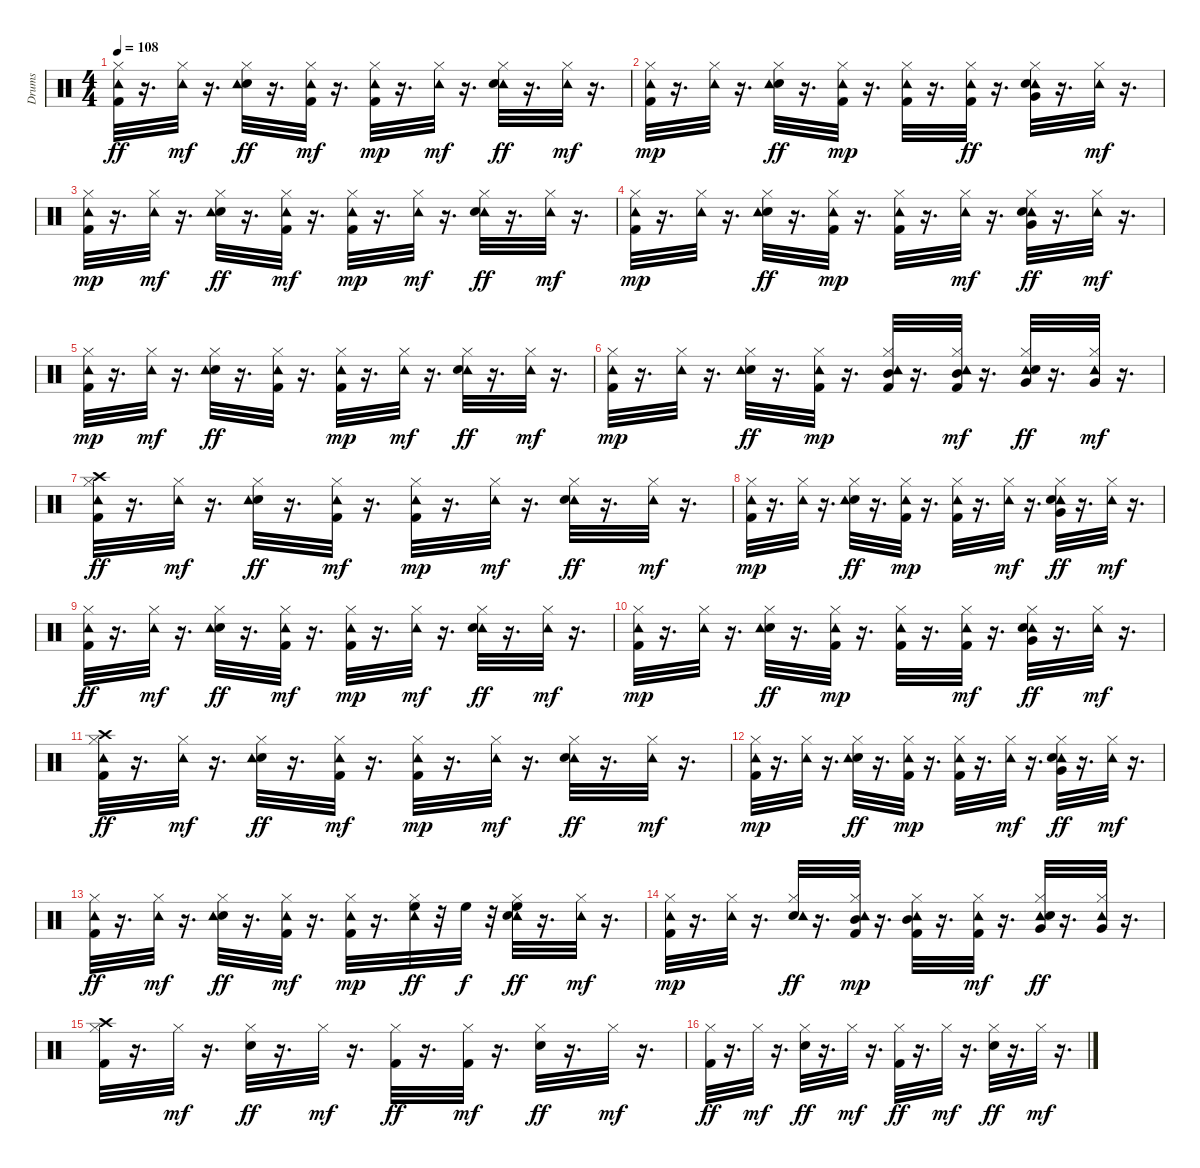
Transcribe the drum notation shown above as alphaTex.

\track ("Drums               " "Drums     ") {instrument percussion}
\staff {score}
\articulation defaults
\ts (4 4)
\tempo 108
\clef neutral
\ks c
("Kick (hit) 2" "Tambourine (hit)" "Hi-Hat (closed)").32{dy ff} r.16{d} ("Tambourine (hit)" "Hi-Hat (closed)").32{dy mf} r.16{d} ("Hi-Hat (closed)" "Snare (hit) 2" "Tambourine (hit)").32{dy ff} r.16{d} ("Tambourine (hit)" "Kick (hit) 2" "Hi-Hat (closed)").32{dy mf} r.16{d} ("Kick (hit) 2" "Hi-Hat (closed)" "Tambourine (hit)").32{dy mp} r.16{d} ("Tambourine (hit)" "Hi-Hat (closed)").32{dy mf} r.16{d} ("Tambourine (hit)" "Snare (hit) 2" "Hi-Hat (closed)").32{dy ff} r.16{d} ("Tambourine (hit)" "Hi-Hat (closed)").32{dy mf} r.16{d} |
("Kick (hit) 2" "Hi-Hat (closed)" "Tambourine (hit)").32{dy mp} r.16{d} ("Hi-Hat (closed)" "Tambourine (hit)").32 r.16{d} ("Snare (hit) 2" "Hi-Hat (closed)" "Tambourine (hit)").32{dy ff} r.16{d} ("Kick (hit) 2" "Hi-Hat (closed)" "Tambourine (hit)").32{dy mp} r.16{d} ("Kick (hit) 2" "Hi-Hat (closed)" "Tambourine (hit)").32 r.16{d} ("Tambourine (hit)" "Hi-Hat (closed)" "Kick (hit) 2").32{dy ff} r.16{d} ("Tambourine (hit)" "Snare (hit) 2" "Very Low Tom (hit)" "Hi-Hat (closed)").32 r.16{d} ("Tambourine (hit)" "Hi-Hat (closed)").32{dy mf} r.16{d} |
("Kick (hit) 2" "Hi-Hat (closed)" "Tambourine (hit)").32{dy mp} r.16{d} ("Tambourine (hit)" "Hi-Hat (closed)").32{dy mf} r.16{d} ("Snare (hit) 2" "Hi-Hat (closed)" "Tambourine (hit)").32{dy ff} r.16{d} ("Tambourine (hit)" "Kick (hit) 2" "Hi-Hat (closed)").32{dy mf} r.16{d} ("Kick (hit) 2" "Hi-Hat (closed)" "Tambourine (hit)").32{dy mp} r.16{d} ("Tambourine (hit)" "Hi-Hat (closed)").32{dy mf} r.16{d} ("Tambourine (hit)" "Snare (hit) 2" "Hi-Hat (closed)").32{dy ff} r.16{d} ("Tambourine (hit)" "Hi-Hat (closed)").32{dy mf} r.16{d} |
("Hi-Hat (closed)" "Kick (hit) 2" "Tambourine (hit)").32{dy mp} r.16{d} ("Hi-Hat (closed)" "Tambourine (hit)").32 r.16{d} ("Snare (hit) 2" "Hi-Hat (closed)" "Tambourine (hit)").32{dy ff} r.16{d} ("Kick (hit) 2" "Hi-Hat (closed)" "Tambourine (hit)").32{dy mp} r.16{d} ("Kick (hit) 2" "Hi-Hat (closed)" "Tambourine (hit)").32 r.16{d} ("Tambourine (hit)" "Hi-Hat (closed)").32{dy mf} r.16{d} ("Tambourine (hit)" "Snare (hit) 2" "Very Low Tom (hit)" "Hi-Hat (closed)").32{dy ff} r.16{d} ("Tambourine (hit)" "Hi-Hat (closed)").32{dy mf} r.16{d} |
("Kick (hit) 2" "Hi-Hat (closed)" "Tambourine (hit)").32{dy mp} r.16{d} ("Tambourine (hit)" "Hi-Hat (closed)").32{dy mf} r.16{d} ("Snare (hit) 2" "Hi-Hat (closed)" "Tambourine (hit)").32{dy ff} r.16{d} ("Hi-Hat (closed)" "Tambourine (hit)" "Kick (hit) 2").32 r.16{d} ("Kick (hit) 2" "Hi-Hat (closed)" "Tambourine (hit)").32{dy mp} r.16{d} ("Tambourine (hit)" "Hi-Hat (closed)").32{dy mf} r.16{d} ("Tambourine (hit)" "Snare (hit) 2" "Hi-Hat (closed)").32{dy ff} r.16{d} ("Tambourine (hit)" "Hi-Hat (closed)").32{dy mf} r.16{d} |
("Kick (hit) 2" "Hi-Hat (closed)" "Tambourine (hit)").32{dy mp} r.16{d} ("Hi-Hat (closed)" "Tambourine (hit)").32 r.16{d} ("Snare (hit) 2" "Hi-Hat (closed)" "Tambourine (hit)").32{dy ff} r.16{d} ("Kick (hit) 2" "Hi-Hat (closed)" "Tambourine (hit)").32{dy mp} r.16{d} ("Kick (hit) 2" "Mid Tom (hit)" "Hi-Hat (closed)" "Tambourine (hit)").32 r.16{d} ("Tambourine (hit)" "Kick (hit) 2" "Hi-Hat (closed)" "Mid Tom (hit)").32{dy mf} r.16{d} ("Tambourine (hit)" "Hi-Hat (closed)" "Snare (hit) 2" "Very Low Tom (hit)").32{dy ff} r.16{d} ("Tambourine (hit)" "Very Low Tom (hit)" "Hi-Hat (closed)").32{dy mf} r.16{d} |
("Kick (hit) 2" "Crash high (hit)" "Tambourine (hit)" "Hi-Hat (closed)").32{dy ff} r.16{d} ("Tambourine (hit)" "Hi-Hat (closed)").32{dy mf} r.16{d} ("Snare (hit) 2" "Hi-Hat (closed)" "Tambourine (hit)").32{dy ff} r.16{d} ("Tambourine (hit)" "Kick (hit) 2" "Hi-Hat (closed)").32{dy mf} r.16{d} ("Kick (hit) 2" "Hi-Hat (closed)" "Tambourine (hit)").32{dy mp} r.16{d} ("Tambourine (hit)" "Hi-Hat (closed)").32{dy mf} r.16{d} ("Tambourine (hit)" "Snare (hit) 2" "Hi-Hat (closed)").32{dy ff} r.16{d} ("Tambourine (hit)" "Hi-Hat (closed)").32{dy mf} r.16{d} |
("Kick (hit) 2" "Hi-Hat (closed)" "Tambourine (hit)").32{dy mp} r.16{d} ("Hi-Hat (closed)" "Tambourine (hit)").32 r.16{d} ("Snare (hit) 2" "Hi-Hat (closed)" "Tambourine (hit)").32{dy ff} r.16{d} ("Kick (hit) 2" "Hi-Hat (closed)" "Tambourine (hit)").32{dy mp} r.16{d} ("Kick (hit) 2" "Hi-Hat (closed)" "Tambourine (hit)").32 r.16{d} ("Tambourine (hit)" "Hi-Hat (closed)").32{dy mf} r.16{d} ("Tambourine (hit)" "Snare (hit) 2" "Very Low Tom (hit)" "Hi-Hat (closed)").32{dy ff} r.16{d} ("Tambourine (hit)" "Hi-Hat (closed)").32{dy mf} r.16{d} |
("Kick (hit) 2" "Tambourine (hit)" "Hi-Hat (closed)").32{dy ff} r.16{d} ("Tambourine (hit)" "Hi-Hat (closed)").32{dy mf} r.16{d} ("Snare (hit) 2" "Hi-Hat (closed)" "Tambourine (hit)").32{dy ff} r.16{d} ("Tambourine (hit)" "Kick (hit) 2" "Hi-Hat (closed)").32{dy mf} r.16{d} ("Hi-Hat (closed)" "Kick (hit) 2" "Tambourine (hit)").32{dy mp} r.16{d} ("Tambourine (hit)" "Hi-Hat (closed)").32{dy mf} r.16{d} ("Tambourine (hit)" "Snare (hit) 2" "Hi-Hat (closed)").32{dy ff} r.16{d} ("Tambourine (hit)" "Hi-Hat (closed)").32{dy mf} r.16{d} |
("Kick (hit) 2" "Hi-Hat (closed)" "Tambourine (hit)").32{dy mp} r.16{d} ("Hi-Hat (closed)" "Tambourine (hit)").32 r.16{d} ("Snare (hit) 2" "Hi-Hat (closed)" "Tambourine (hit)").32{dy ff} r.16{d} ("Kick (hit) 2" "Hi-Hat (closed)" "Tambourine (hit)").32{dy mp} r.16{d} ("Kick (hit) 2" "Hi-Hat (closed)" "Tambourine (hit)").32 r.16{d} ("Tambourine (hit)" "Kick (hit) 2" "Hi-Hat (closed)").32{dy mf} r.16{d} ("Tambourine (hit)" "Snare (hit) 2" "Hi-Hat (closed)" "Very Low Tom (hit)").32{dy ff} r.16{d} ("Tambourine (hit)" "Hi-Hat (closed)").32{dy mf} r.16{d} |
("Kick (hit) 2" "Crash high (hit)" "Tambourine (hit)" "Hi-Hat (closed)").32{dy ff} r.16{d} ("Tambourine (hit)" "Hi-Hat (closed)").32{dy mf} r.16{d} ("Snare (hit) 2" "Hi-Hat (closed)" "Tambourine (hit)").32{dy ff} r.16{d} ("Tambourine (hit)" "Kick (hit) 2" "Hi-Hat (closed)").32{dy mf} r.16{d} ("Kick (hit) 2" "Hi-Hat (closed)" "Tambourine (hit)").32{dy mp} r.16{d} ("Tambourine (hit)" "Hi-Hat (closed)").32{dy mf} r.16{d} ("Tambourine (hit)" "Snare (hit) 2" "Hi-Hat (closed)").32{dy ff} r.16{d} ("Tambourine (hit)" "Hi-Hat (closed)").32{dy mf} r.16{d} |
("Kick (hit) 2" "Hi-Hat (closed)" "Tambourine (hit)").32{dy mp} r.16{d} ("Hi-Hat (closed)" "Tambourine (hit)").32 r.16{d} ("Hi-Hat (closed)" "Snare (hit) 2" "Tambourine (hit)").32{dy ff} r.16{d} ("Kick (hit) 2" "Hi-Hat (closed)" "Tambourine (hit)").32{dy mp} r.16{d} ("Kick (hit) 2" "Hi-Hat (closed)" "Tambourine (hit)").32 r.16{d} ("Tambourine (hit)" "Hi-Hat (closed)").32{dy mf} r.16{d} ("Tambourine (hit)" "Snare (hit) 2" "Very Low Tom (hit)" "Hi-Hat (closed)").32{dy ff} r.16{d} ("Tambourine (hit)" "Hi-Hat (closed)").32{dy mf} r.16{d} |
("Kick (hit) 2" "Tambourine (hit)" "Hi-Hat (closed)").32{dy ff} r.16{d} ("Tambourine (hit)" "Hi-Hat (closed)").32{dy mf} r.16{d} ("Snare (hit) 2" "Hi-Hat (closed)" "Tambourine (hit)").32{dy ff} r.16{d} ("Tambourine (hit)" "Kick (hit) 2" "Hi-Hat (closed)").32{dy mf} r.16{d} ("Kick (hit) 2" "Hi-Hat (closed)" "Tambourine (hit)").32{dy mp} r.16{d} ("Tambourine (hit)" "Hi-Hat (closed)" "High Floor Tom (hit)").32{dy ff} r.32 "High Floor Tom (hit)".32{dy f} r.32 ("Tambourine (hit)" "Snare (hit) 2" "High Floor Tom (hit)" "Hi-Hat (closed)").32{dy ff} r.16{d} ("Tambourine (hit)" "Hi-Hat (closed)").32{dy mf} r.16{d} |
("Kick (hit) 2" "Hi-Hat (closed)" "Tambourine (hit)").32{dy mp} r.16{d} ("Hi-Hat (closed)" "Tambourine (hit)").32 r.16{d} ("Snare (hit) 2" "Hi-Hat (closed)" "Tambourine (hit)").32{dy ff} r.16{d} ("Kick (hit) 2" "Mid Tom (hit)" "Hi-Hat (closed)" "Tambourine (hit)").32{dy mp} r.16{d} ("Kick (hit) 2" "Mid Tom (hit)" "Hi-Hat (closed)" "Tambourine (hit)").32 r.16{d} ("Tambourine (hit)" "Kick (hit) 2" "Hi-Hat (closed)").32{dy mf} r.16{d} ("Tambourine (hit)" "Snare (hit) 2" "Very Low Tom (hit)" "Hi-Hat (closed)").32{dy ff} r.16{d} ("Tambourine (hit)" "Hi-Hat (closed)" "Very Low Tom (hit)").32 r.16{d} |
("Hi-Hat (closed)" "Kick (hit) 2" "Crash high (hit)").32 r.16{d} "Hi-Hat (closed)".32{dy mf} r.16{d} ("Snare (hit) 2" "Hi-Hat (closed)").32{dy ff} r.16{d} "Hi-Hat (closed)".32{dy mf} r.16{d} ("Kick (hit) 2" "Hi-Hat (closed)").32{dy ff} r.16{d} ("Kick (hit) 2" "Hi-Hat (closed)").32{dy mf} r.16{d} ("Snare (hit) 2" "Hi-Hat (closed)").32{dy ff} r.16{d} "Hi-Hat (closed)".32{dy mf} r.16{d} |
("Kick (hit) 2" "Hi-Hat (closed)").32{dy ff} r.16{d} "Hi-Hat (closed)".32{dy mf} r.16{d} ("Snare (hit) 2" "Hi-Hat (closed)").32{dy ff} r.16{d} "Hi-Hat (closed)".32{dy mf} r.16{d} ("Kick (hit) 2" "Hi-Hat (closed)").32{dy ff} r.16{d} "Hi-Hat (closed)".32{dy mf} r.16{d} ("Snare (hit) 2" "Hi-Hat (closed)").32{dy ff} r.16{d} "Hi-Hat (closed)".32{dy mf} r.16{d}
